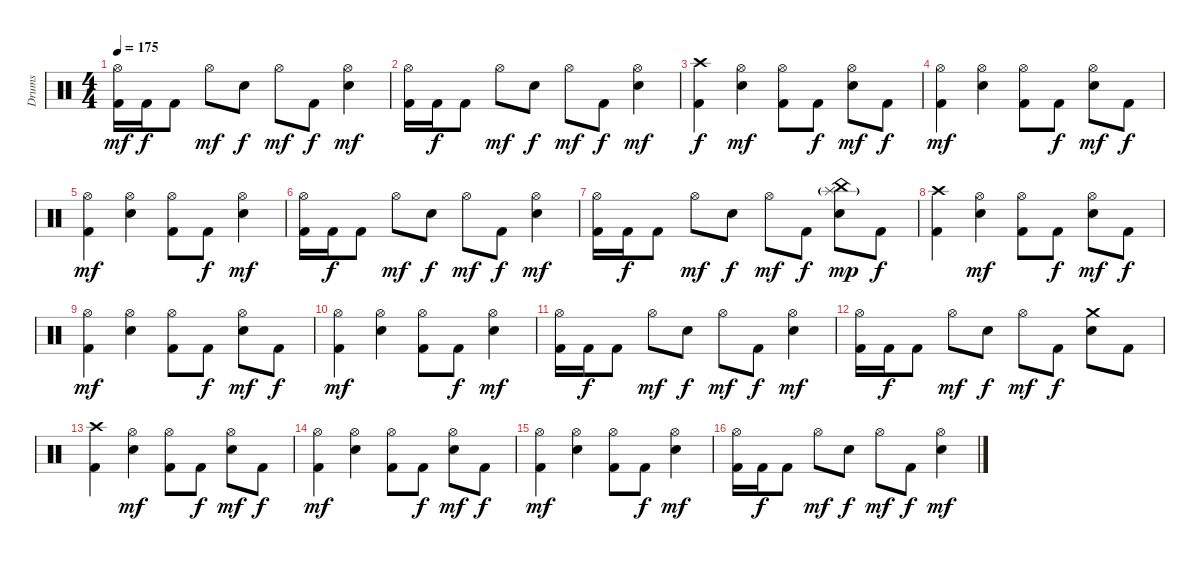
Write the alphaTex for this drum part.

\track ("Drums" "Drums") {instrument percussion}
\staff {score}
\articulation defaults
\ts (4 4)
\tempo 175
\clef neutral
\ks c
("Hi-Hat (open)" "Kick (hit) 2").16{dy mf} "Kick (hit) 2".16{dy f} "Kick (hit) 2".8 "Hi-Hat (open)".8{dy mf} "Electric Snare (hit)".8{dy f} "Hi-Hat (open)".8{dy mf} "Kick (hit) 2".8{dy f} ("Hi-Hat (open)" "Electric Snare (hit)").4{dy mf} |
("Hi-Hat (open)" "Kick (hit) 2").16 "Kick (hit) 2".16{dy f} "Kick (hit) 2".8 "Hi-Hat (open)".8{dy mf} "Electric Snare (hit)".8{dy f} "Hi-Hat (open)".8{dy mf} "Kick (hit) 2".8{dy f} ("Hi-Hat (open)" "Electric Snare (hit)").4{dy mf} |
("Crash high (hit)" "Kick (hit) 2").4{dy f} ("Hi-Hat (open)" "Electric Snare (hit)").4{dy mf} ("Hi-Hat (open)" "Kick (hit) 2").8 "Kick (hit) 2".8{dy f} ("Hi-Hat (open)" "Electric Snare (hit)").8{dy mf} "Kick (hit) 2".8{dy f} |
("Hi-Hat (open)" "Kick (hit) 2").4{dy mf} ("Hi-Hat (open)" "Electric Snare (hit)").4 ("Hi-Hat (open)" "Kick (hit) 2").8 "Kick (hit) 2".8{dy f} ("Hi-Hat (open)" "Electric Snare (hit)").8{dy mf} "Kick (hit) 2".8{dy f} |
("Hi-Hat (open)" "Kick (hit) 2").4{dy mf} ("Hi-Hat (open)" "Electric Snare (hit)").4 ("Hi-Hat (open)" "Kick (hit) 2").8 "Kick (hit) 2".8{dy f} ("Hi-Hat (open)" "Electric Snare (hit)").4{dy mf} |
("Hi-Hat (open)" "Kick (hit) 2").16 "Kick (hit) 2".16{dy f} "Kick (hit) 2".8 "Hi-Hat (open)".8{dy mf} "Electric Snare (hit)".8{dy f} "Hi-Hat (open)".8{dy mf} "Kick (hit) 2".8{dy f} ("Hi-Hat (open)" "Electric Snare (hit)").4{dy mf} |
("Hi-Hat (open)" "Kick (hit) 2").16 "Kick (hit) 2".16{dy f} "Kick (hit) 2".8 "Hi-Hat (open)".8{dy mf} "Electric Snare (hit)".8{dy f} "Hi-Hat (open)".8{dy mf} "Kick (hit) 2".8{dy f} ("China (hit)" "Splash (hit)"{g} "Electric Snare (hit)").8{dy mp} "Kick (hit) 2".8{dy f} |
("Crash high (hit)" "Kick (hit) 2").4 ("Hi-Hat (open)" "Electric Snare (hit)").4{dy mf} ("Hi-Hat (open)" "Kick (hit) 2").8 "Kick (hit) 2".8{dy f} ("Hi-Hat (open)" "Electric Snare (hit)").8{dy mf} "Kick (hit) 2".8{dy f} |
("Hi-Hat (open)" "Kick (hit) 2").4{dy mf} ("Hi-Hat (open)" "Electric Snare (hit)").4 ("Hi-Hat (open)" "Kick (hit) 2").8 "Kick (hit) 2".8{dy f} ("Hi-Hat (open)" "Electric Snare (hit)").8{dy mf} "Kick (hit) 2".8{dy f} |
("Hi-Hat (open)" "Kick (hit) 2").4{dy mf} ("Hi-Hat (open)" "Electric Snare (hit)").4 ("Hi-Hat (open)" "Kick (hit) 2").8 "Kick (hit) 2".8{dy f} ("Hi-Hat (open)" "Electric Snare (hit)").4{dy mf} |
("Hi-Hat (open)" "Kick (hit) 2").16 "Kick (hit) 2".16{dy f} "Kick (hit) 2".8 "Hi-Hat (open)".8{dy mf} "Electric Snare (hit)".8{dy f} "Hi-Hat (open)".8{dy mf} "Kick (hit) 2".8{dy f} ("Hi-Hat (open)" "Electric Snare (hit)").4{dy mf} |
("Hi-Hat (open)" "Kick (hit) 2").16 "Kick (hit) 2".16{dy f} "Kick (hit) 2".8 "Hi-Hat (open)".8{dy mf} "Electric Snare (hit)".8{dy f} "Hi-Hat (open)".8{dy mf} "Kick (hit) 2".8{dy f} ("Crash medium (hit)" "Electric Snare (hit)").8 "Kick (hit) 2".8 |
("Crash high (hit)" "Kick (hit) 2").4 ("Hi-Hat (open)" "Electric Snare (hit)").4{dy mf} ("Hi-Hat (open)" "Kick (hit) 2").8 "Kick (hit) 2".8{dy f} ("Hi-Hat (open)" "Electric Snare (hit)").8{dy mf} "Kick (hit) 2".8{dy f} |
("Hi-Hat (open)" "Kick (hit) 2").4{dy mf} ("Hi-Hat (open)" "Electric Snare (hit)").4 ("Hi-Hat (open)" "Kick (hit) 2").8 "Kick (hit) 2".8{dy f} ("Hi-Hat (open)" "Electric Snare (hit)").8{dy mf} "Kick (hit) 2".8{dy f} |
("Hi-Hat (open)" "Kick (hit) 2").4{dy mf} ("Hi-Hat (open)" "Electric Snare (hit)").4 ("Hi-Hat (open)" "Kick (hit) 2").8 "Kick (hit) 2".8{dy f} ("Hi-Hat (open)" "Electric Snare (hit)").4{dy mf} |
("Hi-Hat (open)" "Kick (hit) 2").16 "Kick (hit) 2".16{dy f} "Kick (hit) 2".8 "Hi-Hat (open)".8{dy mf} "Electric Snare (hit)".8{dy f} "Hi-Hat (open)".8{dy mf} "Kick (hit) 2".8{dy f} ("Hi-Hat (open)" "Electric Snare (hit)").4{dy mf}
